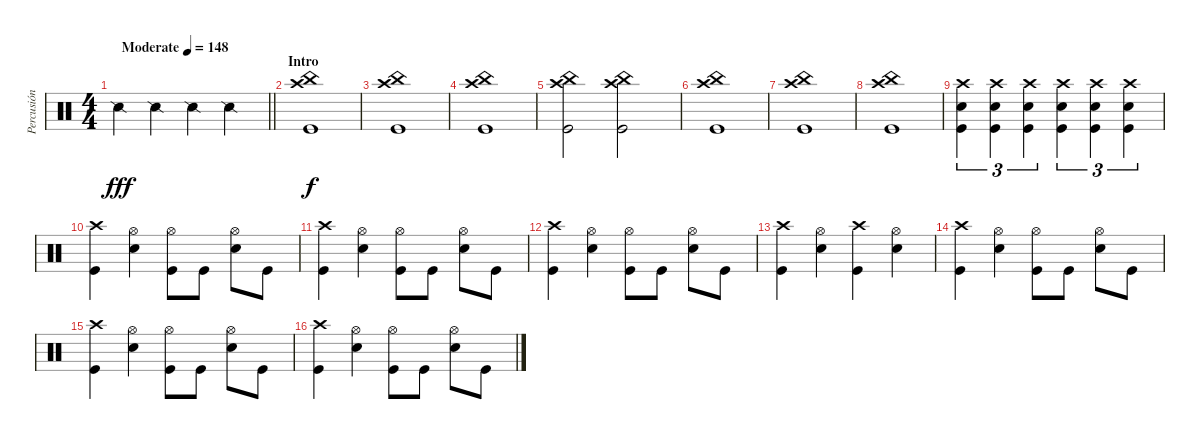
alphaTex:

\track ("Percusión" "Percusión") {instrument percussion}
\staff {score}
\articulation defaults
\ts (4 4)
\tempo (148 "Moderate")
\clef neutral
\barLineRight lightlight
\ks c "Snare (side stick) 2".4{dy fff} "Snare (side stick) 2".4 "Snare (side stick) 2".4 "Snare (side stick) 2".4
|
\section ("" "Intro")
("Crash high (hit)" "China (hit)" "Kick (hit)").1{dy f} |
("Crash high (hit)" "China (hit)" "Kick (hit)").1 |
("Crash high (hit)" "China (hit)" "Kick (hit)").1 |
("Crash high (hit)" "China (hit)" "Kick (hit)").2 ("Crash high (hit)" "China (hit)" "Kick (hit)").2 |
("Crash high (hit)" "China (hit)" "Kick (hit)").1 |
("Crash high (hit)" "China (hit)" "Kick (hit)").1 |
("Crash high (hit)" "China (hit)" "Kick (hit)").1 |
("Crash high (hit)" "Electric Snare (hit)" "Kick (hit)").4{tu (3 2)} ("Crash high (hit)" "Electric Snare (hit)" "Kick (hit)").4{tu (3 2)} ("Crash high (hit)" "Electric Snare (hit)" "Kick (hit)").4{tu (3 2)} ("Crash high (hit)" "Electric Snare (hit)" "Kick (hit)").4{tu (3 2)} ("Crash high (hit)" "Electric Snare (hit)" "Kick (hit)").4{tu (3 2)} ("Crash high (hit)" "Electric Snare (hit)" "Kick (hit)").4{tu (3 2)} |
("Crash high (hit)" "Kick (hit)").4 ("Hi-Hat (open)" "Electric Snare (hit)").4 ("Hi-Hat (open)" "Kick (hit)").8 "Kick (hit)".8 ("Hi-Hat (open)" "Electric Snare (hit)").8 "Kick (hit)".8 |
("Crash high (hit)" "Kick (hit)").4 ("Hi-Hat (open)" "Electric Snare (hit)").4 ("Hi-Hat (open)" "Kick (hit)").8 "Kick (hit)".8 ("Hi-Hat (open)" "Electric Snare (hit)").8 "Kick (hit)".8 |
("Crash high (hit)" "Kick (hit)").4 ("Hi-Hat (open)" "Electric Snare (hit)").4 ("Hi-Hat (open)" "Kick (hit)").8 "Kick (hit)".8 ("Hi-Hat (open)" "Electric Snare (hit)").8 "Kick (hit)".8 |
("Crash high (hit)" "Kick (hit)").4 ("Hi-Hat (open)" "Electric Snare (hit)").4 ("Crash high (hit)" "Kick (hit)").4 ("Hi-Hat (open)" "Electric Snare (hit)").4 |
("Crash high (hit)" "Kick (hit)").4 ("Hi-Hat (open)" "Electric Snare (hit)").4 ("Hi-Hat (open)" "Kick (hit)").8 "Kick (hit)".8 ("Hi-Hat (open)" "Electric Snare (hit)").8 "Kick (hit)".8 |
("Crash high (hit)" "Kick (hit)").4 ("Hi-Hat (open)" "Electric Snare (hit)").4 ("Hi-Hat (open)" "Kick (hit)").8 "Kick (hit)".8 ("Hi-Hat (open)" "Electric Snare (hit)").8 "Kick (hit)".8 |
("Crash high (hit)" "Kick (hit)").4 ("Hi-Hat (open)" "Electric Snare (hit)").4 ("Hi-Hat (open)" "Kick (hit)").8 "Kick (hit)".8 ("Hi-Hat (open)" "Electric Snare (hit)").8 "Kick (hit)".8
